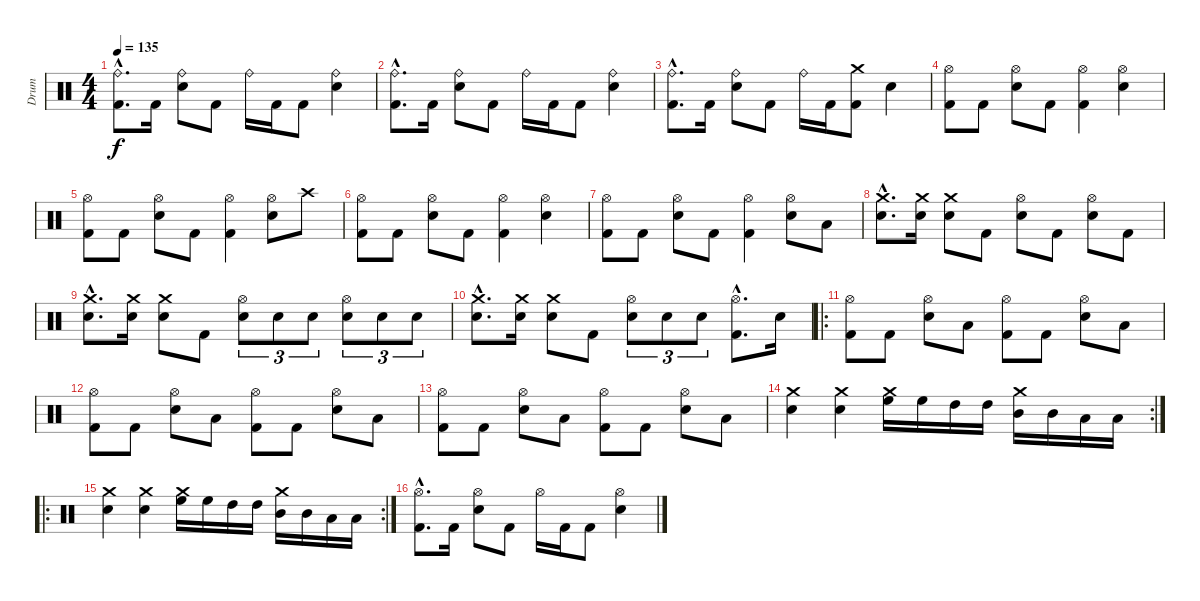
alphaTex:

\track ("Drum" "Drum") {instrument percussion}
\staff {score}
\articulation defaults
\ts (4 4)
\tempo 135
\clef neutral
\ks c
("Ride (bell)"{hac} "Kick (hit) 2"{hac}).8{d dy f} "Kick (hit) 2".16 ("Ride (bell)" "Electric Snare (hit)").8 "Kick (hit) 2".8 "Ride (bell)".16 "Kick (hit) 2".16 "Kick (hit) 2".8 ("Ride (bell)" "Electric Snare (hit)").4 |
("Ride (bell)"{hac} "Kick (hit) 2"{hac}).8{d} "Kick (hit) 2".16 ("Ride (bell)" "Electric Snare (hit)").8 "Kick (hit) 2".8 "Ride (bell)".16 "Kick (hit) 2".16 "Kick (hit) 2".8 ("Ride (bell)" "Electric Snare (hit)").4 |
("Ride (bell)"{hac} "Kick (hit) 2"{hac}).8{d} "Kick (hit) 2".16 ("Ride (bell)" "Electric Snare (hit)").8 "Kick (hit) 2".8 "Ride (bell)".16 "Kick (hit) 2".16 ("Crash medium (hit)" "Kick (hit) 2").8 "Electric Snare (hit)".4 |
("Hi-Hat (open)" "Kick (hit) 2").8 "Kick (hit) 2".8 ("Hi-Hat (open)" "Electric Snare (hit)").8 "Kick (hit) 2".8 ("Hi-Hat (open)" "Kick (hit) 2").4 ("Hi-Hat (open)" "Electric Snare (hit)").4 |
("Hi-Hat (open)" "Kick (hit) 2").8 "Kick (hit) 2".8 ("Hi-Hat (open)" "Electric Snare (hit)").8 "Kick (hit) 2".8 ("Hi-Hat (open)" "Kick (hit) 2").4 ("Hi-Hat (open)" "Electric Snare (hit)").8 "Crash high (hit)".8 |
("Hi-Hat (open)" "Kick (hit) 2").8 "Kick (hit) 2".8 ("Hi-Hat (open)" "Electric Snare (hit)").8 "Kick (hit) 2".8 ("Hi-Hat (open)" "Kick (hit) 2").4 ("Hi-Hat (open)" "Electric Snare (hit)").4 |
("Hi-Hat (open)" "Kick (hit) 2").8 "Kick (hit) 2".8 ("Hi-Hat (open)" "Electric Snare (hit)").8 "Kick (hit) 2".8 ("Hi-Hat (open)" "Kick (hit) 2").4 ("Hi-Hat (open)" "Electric Snare (hit)").8 "Low Tom (hit)".8 |
("Crash medium (hit)"{hac} "Electric Snare (hit)"{hac}).8{d} ("Crash medium (hit)" "Electric Snare (hit)").16 ("Crash medium (hit)" "Electric Snare (hit)").8 "Kick (hit) 2".8 ("Hi-Hat (open)" "Electric Snare (hit)").8 "Kick (hit) 2".8 ("Hi-Hat (open)" "Electric Snare (hit)").8 "Kick (hit) 2".8 |
("Crash medium (hit)"{hac} "Electric Snare (hit)"{hac}).8{d} ("Crash medium (hit)" "Electric Snare (hit)").16 ("Crash medium (hit)" "Electric Snare (hit)").8 "Kick (hit) 2".8 ("Hi-Hat (open)" "Electric Snare (hit)").8{tu (3 2)} "Electric Snare (hit)".8{tu (3 2)} "Electric Snare (hit)".8{tu (3 2)} ("Hi-Hat (open)" "Electric Snare (hit)").8{tu (3 2)} "Electric Snare (hit)".8{tu (3 2)} "Electric Snare (hit)".8{tu (3 2)} |
("Crash medium (hit)"{hac} "Electric Snare (hit)"{hac}).8{d} ("Crash medium (hit)" "Electric Snare (hit)").16 ("Crash medium (hit)" "Electric Snare (hit)").8 "Kick (hit) 2".8 ("Hi-Hat (open)" "Electric Snare (hit)").8{tu (3 2)} "Electric Snare (hit)".8{tu (3 2)} "Electric Snare (hit)".8{tu (3 2)} ("Hi-Hat (open)"{hac} "Kick (hit) 2"{hac}).8{d} "Electric Snare (hit)".16 |
\ro
("Hi-Hat (open)" "Kick (hit) 2").8 "Kick (hit) 2".8 ("Hi-Hat (open)" "Electric Snare (hit)").8 "Low Tom (hit)".8 ("Hi-Hat (open)" "Kick (hit) 2").8 "Kick (hit) 2".8 ("Hi-Hat (open)" "Electric Snare (hit)").8 "Low Tom (hit)".8 |
("Hi-Hat (open)" "Kick (hit) 2").8 "Kick (hit) 2".8 ("Hi-Hat (open)" "Electric Snare (hit)").8 "Low Tom (hit)".8 ("Hi-Hat (open)" "Kick (hit) 2").8 "Kick (hit) 2".8 ("Hi-Hat (open)" "Electric Snare (hit)").8 "Low Tom (hit)".8 |
("Hi-Hat (open)" "Kick (hit) 2").8 "Kick (hit) 2".8 ("Hi-Hat (open)" "Electric Snare (hit)").8 "Low Tom (hit)".8 ("Hi-Hat (open)" "Kick (hit) 2").8 "Kick (hit) 2".8 ("Hi-Hat (open)" "Electric Snare (hit)").8 "Low Tom (hit)".8 |
\rc 2
("Crash medium (hit)" "Electric Snare (hit)").4 ("Crash medium (hit)" "Electric Snare (hit)").4 ("Crash medium (hit)" "High Floor Tom (hit)").16 "High Floor Tom (hit)".16 "High Tom (hit)".16 "High Tom (hit)".16 ("Crash medium (hit)" "Mid Tom (hit)").16 "Mid Tom (hit)".16 "Low Tom (hit)".16 "Low Tom (hit)".16 |
\ro
\rc 2
("Crash medium (hit)" "Electric Snare (hit)").4 ("Crash medium (hit)" "Electric Snare (hit)").4 ("Crash medium (hit)" "High Floor Tom (hit)").16 "High Floor Tom (hit)".16 "High Tom (hit)".16 "High Tom (hit)".16 ("Crash medium (hit)" "Mid Tom (hit)").16 "Mid Tom (hit)".16 "Low Tom (hit)".16 "Low Tom (hit)".16 |
("Hi-Hat (open)"{hac} "Kick (hit) 2"{hac}).8{d} "Kick (hit) 2".16 ("Hi-Hat (open)" "Electric Snare (hit)").8 "Kick (hit) 2".8 "Hi-Hat (open)".16 "Kick (hit) 2".16 "Kick (hit) 2".8 ("Hi-Hat (open)" "Electric Snare (hit)").4
